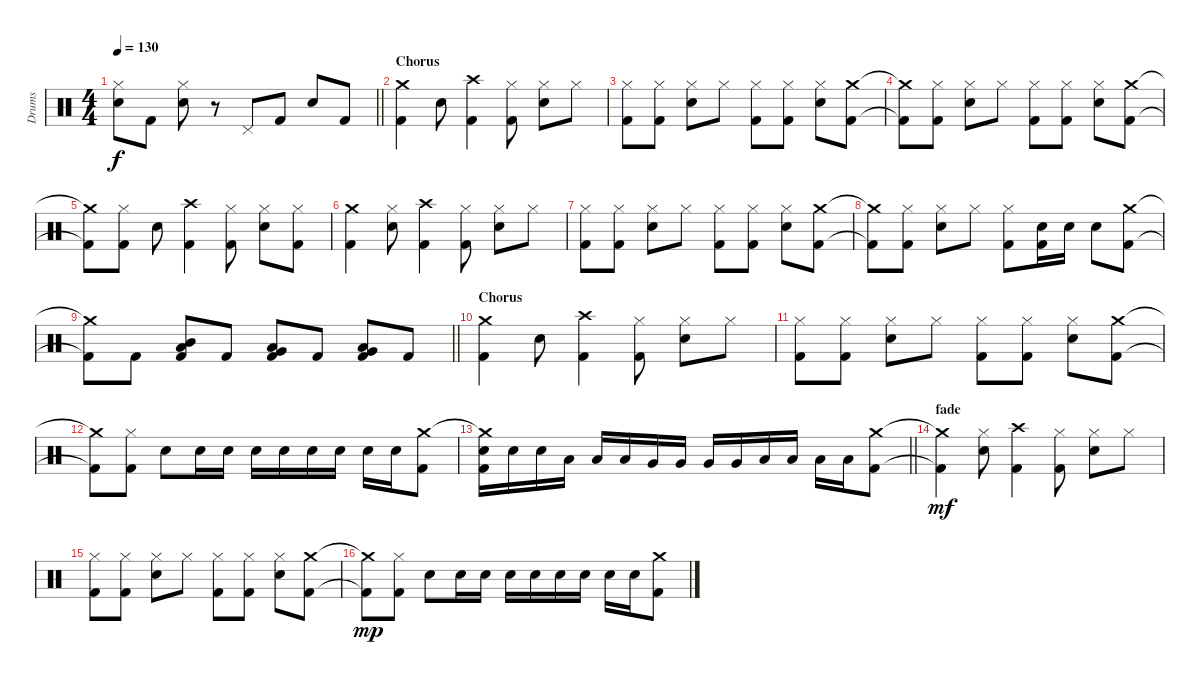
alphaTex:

\track ("Drums" "Drums") {instrument percussion}
\staff {score}
\articulation defaults
\ts (4 4)
\tempo 130
\clef neutral
\barLineRight lightlight
\ks c
("Hi-Hat (closed)" "Electric Snare (hit)").8{dy f} "Kick (hit) 2".8 ("Hi-Hat (closed)" "Electric Snare (hit)").8 r.8 "Pedal Hi-Hat (hit)".8 "Kick (hit) 2".8 "Electric Snare (hit)".8 "Kick (hit) 2".8 |
\section ("" "Chorus")
("Crash medium (hit)" "Kick (hit) 2").4 "Electric Snare (hit)".8 ("Crash high (hit)" "Kick (hit) 2").4 ("Hi-Hat (closed)" "Kick (hit) 2").8 ("Hi-Hat (closed)" "Electric Snare (hit)").8 "Hi-Hat (closed)".8 |
("Hi-Hat (closed)" "Kick (hit) 2").8 ("Hi-Hat (closed)" "Kick (hit) 2").8 ("Hi-Hat (closed)" "Electric Snare (hit)").8 "Hi-Hat (closed)".8 ("Hi-Hat (closed)" "Kick (hit) 2").8 ("Hi-Hat (closed)" "Kick (hit) 2").8 ("Hi-Hat (closed)" "Electric Snare (hit)").8 ("Crash medium (hit)" "Kick (hit) 2").8 |
("Crash medium (hit)"{t} "Kick (hit) 2"{t}).8 ("Hi-Hat (closed)" "Kick (hit) 2").8 ("Hi-Hat (closed)" "Electric Snare (hit)").8 "Hi-Hat (closed)".8 ("Hi-Hat (closed)" "Kick (hit) 2").8 ("Hi-Hat (closed)" "Kick (hit) 2").8 ("Hi-Hat (closed)" "Electric Snare (hit)").8 ("Crash medium (hit)" "Kick (hit) 2").8 |
("Crash medium (hit)"{t} "Kick (hit) 2"{t}).8 ("Hi-Hat (closed)" "Kick (hit) 2").8 "Electric Snare (hit)".8 ("Crash high (hit)" "Kick (hit) 2").4 ("Hi-Hat (closed)" "Kick (hit) 2").8 ("Hi-Hat (closed)" "Electric Snare (hit)").8 ("Hi-Hat (closed)" "Kick (hit) 2").8 |
("Crash medium (hit)" "Kick (hit) 2").4 ("Hi-Hat (closed)" "Electric Snare (hit)").8 ("Crash high (hit)" "Kick (hit) 2").4 ("Hi-Hat (closed)" "Kick (hit) 2").8 ("Hi-Hat (closed)" "Electric Snare (hit)").8 "Hi-Hat (closed)".8 |
("Hi-Hat (closed)" "Kick (hit) 2").8 ("Hi-Hat (closed)" "Kick (hit) 2").8 ("Hi-Hat (closed)" "Electric Snare (hit)").8 "Hi-Hat (closed)".8 ("Hi-Hat (closed)" "Kick (hit) 2").8 ("Hi-Hat (closed)" "Kick (hit) 2").8 ("Hi-Hat (closed)" "Electric Snare (hit)").8 ("Crash medium (hit)" "Kick (hit) 2").8 |
("Crash medium (hit)"{t} "Kick (hit) 2"{t}).8 ("Hi-Hat (closed)" "Kick (hit) 2").8 ("Hi-Hat (closed)" "Electric Snare (hit)").8 "Hi-Hat (closed)".8 ("Hi-Hat (closed)" "Kick (hit) 2").8 ("Electric Snare (hit)" "Kick (hit) 2").16 "Electric Snare (hit)".16 "Electric Snare (hit)".8 ("Crash medium (hit)" "Kick (hit) 2").8 |
\barLineRight lightlight
("Crash medium (hit)"{t} "Kick (hit) 2"{t}).8 "Kick (hit) 2".8 ("Mid Tom (hit)" "Low Tom (hit)" "Kick (hit) 2").8 "Kick (hit) 2".8 ("Low Tom (hit)" "Very Low Tom (hit)" "Kick (hit) 2").8 "Kick (hit) 2".8 ("Very Low Tom (hit)" "Low Floor Tom (hit)" "Kick (hit) 2").8 "Kick (hit) 2".8 |
\section ("" "Chorus")
("Crash medium (hit)" "Kick (hit) 2").4 "Electric Snare (hit)".8 ("Crash high (hit)" "Kick (hit) 2").4 ("Hi-Hat (closed)" "Kick (hit) 2").8 ("Hi-Hat (closed)" "Electric Snare (hit)").8 "Hi-Hat (closed)".8 |
("Hi-Hat (closed)" "Kick (hit) 2").8 ("Hi-Hat (closed)" "Kick (hit) 2").8 ("Hi-Hat (closed)" "Electric Snare (hit)").8 "Hi-Hat (closed)".8 ("Hi-Hat (closed)" "Kick (hit) 2").8 ("Hi-Hat (closed)" "Kick (hit) 2").8 ("Hi-Hat (closed)" "Electric Snare (hit)").8 ("Crash medium (hit)" "Kick (hit) 2").8 |
("Crash medium (hit)"{t} "Kick (hit) 2"{t}).8 ("Hi-Hat (closed)" "Kick (hit) 2").8 "Electric Snare (hit)".8 "Electric Snare (hit)".16 "Electric Snare (hit)".16 "Electric Snare (hit)".16 "Electric Snare (hit)".16 "Electric Snare (hit)".16 "Electric Snare (hit)".16 "Electric Snare (hit)".16 "Electric Snare (hit)".16 ("Crash medium (hit)" "Kick (hit) 2").8 |
\barLineRight lightlight
("Crash medium (hit)"{t} "Electric Snare (hit)" "Kick (hit) 2").16 "Electric Snare (hit)".16 "Electric Snare (hit)".16 "Low Tom (hit)".16 "Low Tom (hit)".16 "Low Tom (hit)".16 "Very Low Tom (hit)".16 "Very Low Tom (hit)".16 "Very Low Tom (hit)".16 "Very Low Tom (hit)".16 "Low Floor Tom (hit)".16 "Low Floor Tom (hit)".16 "Low Floor Tom (hit)".16 "Low Floor Tom (hit)".16 ("Crash medium (hit)" "Kick (hit) 2").8 |
\section ("" "fade")
("Crash medium (hit)"{t} "Kick (hit) 2"{t}).4{dy mf} ("Hi-Hat (closed)" "Electric Snare (hit)").8 ("Crash high (hit)" "Kick (hit) 2").4 ("Hi-Hat (closed)" "Kick (hit) 2").8 ("Hi-Hat (closed)" "Electric Snare (hit)").8 "Hi-Hat (closed)".8 |
("Hi-Hat (closed)" "Kick (hit) 2").8 ("Hi-Hat (closed)" "Kick (hit) 2").8 ("Hi-Hat (closed)" "Electric Snare (hit)").8 "Hi-Hat (closed)".8 ("Hi-Hat (closed)" "Kick (hit) 2").8 ("Hi-Hat (closed)" "Kick (hit) 2").8 ("Hi-Hat (closed)" "Electric Snare (hit)").8 ("Crash medium (hit)" "Kick (hit) 2").8 |
("Crash medium (hit)"{t} "Kick (hit) 2"{t}).8{dy mp} ("Hi-Hat (closed)" "Kick (hit) 2").8 "Electric Snare (hit)".8 "Electric Snare (hit)".16 "Electric Snare (hit)".16 "Electric Snare (hit)".16 "Electric Snare (hit)".16 "Electric Snare (hit)".16 "Electric Snare (hit)".16 "Electric Snare (hit)".16 "Electric Snare (hit)".16 ("Crash medium (hit)" "Kick (hit) 2").8
